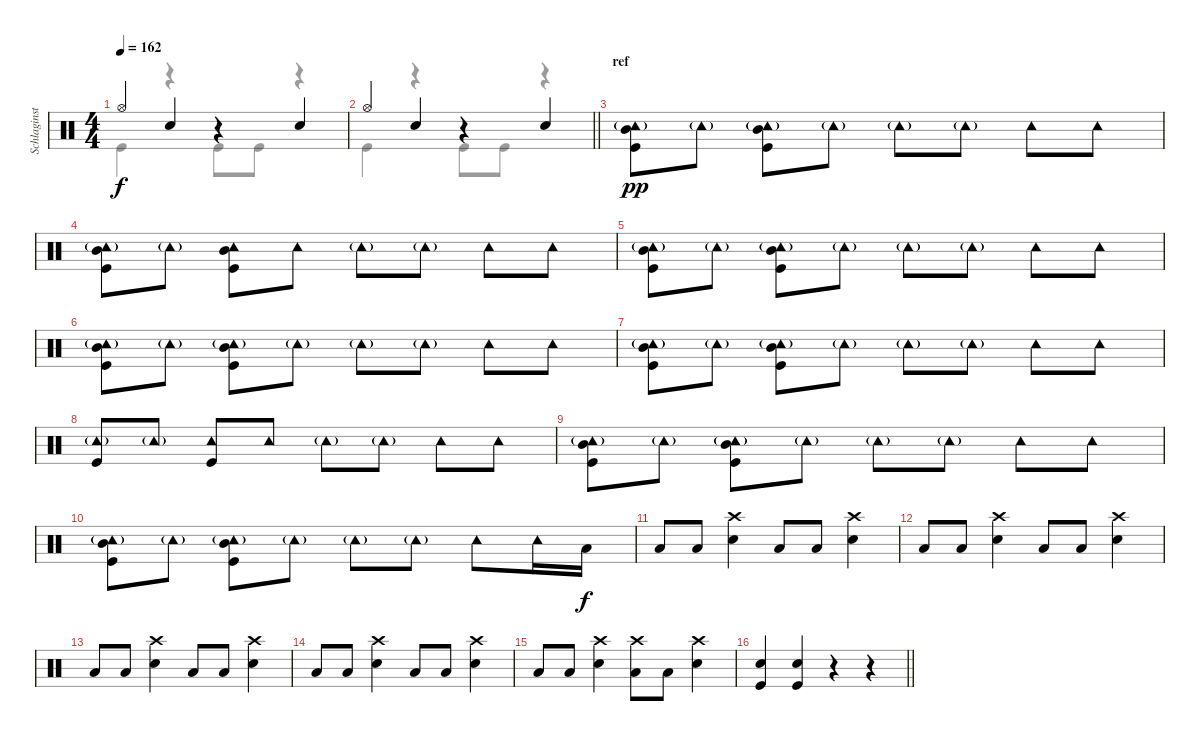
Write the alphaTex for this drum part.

\track ("Schlaginstrumente - Auswahl" "Schlaginst") {instrument percussion}
\staff {score}
\articulation defaults
\voice
\ts (4 4)
\tempo 162
\clef neutral
\ks c "Hi-Hat (open)".4{dy f} "Snare (hit) 2".4
r.4 "Snare (hit) 2".4 |
\barLineRight lightlight "Hi-Hat (open)".4 "Snare (hit) 2".4
r.4 "Snare (hit) 2".4 |
\section ("" "ref")
("Tambourine (hit)"{g} "Kick (hit)" "Mid Tom (hit)").8{dy pp} "Tambourine (hit)"{g}.8 ("Tambourine (hit)"{g} "Kick (hit)" "Mid Tom (hit)").8 "Tambourine (hit)"{g}.8 "Tambourine (hit)"{g}.8 "Tambourine (hit)"{g}.8 "Tambourine (hit)".8 "Tambourine (hit)".8 |
("Tambourine (hit)"{g} "Mid Tom (hit)" "Kick (hit)").8 "Tambourine (hit)"{g}.8 ("Tambourine (hit)" "Mid Tom (hit)" "Kick (hit)").8 "Tambourine (hit)".8 "Tambourine (hit)"{g}.8 "Tambourine (hit)"{g}.8 "Tambourine (hit)".8 "Tambourine (hit)".8 |
("Tambourine (hit)"{g} "Kick (hit)" "Mid Tom (hit)").8 "Tambourine (hit)"{g}.8 ("Tambourine (hit)"{g} "Kick (hit)" "Mid Tom (hit)").8 "Tambourine (hit)"{g}.8 "Tambourine (hit)"{g}.8 "Tambourine (hit)"{g}.8 "Tambourine (hit)".8 "Tambourine (hit)".8 |
("Tambourine (hit)"{g} "Kick (hit)" "Mid Tom (hit)").8 "Tambourine (hit)"{g}.8 ("Tambourine (hit)"{g} "Kick (hit)" "Mid Tom (hit)").8 "Tambourine (hit)"{g}.8 "Tambourine (hit)"{g}.8 "Tambourine (hit)"{g}.8 "Tambourine (hit)".8 "Tambourine (hit)".8 |
("Tambourine (hit)"{g} "Kick (hit)" "Mid Tom (hit)").8 "Tambourine (hit)"{g}.8 ("Tambourine (hit)"{g} "Kick (hit)" "Mid Tom (hit)").8 "Tambourine (hit)"{g}.8 "Tambourine (hit)"{g}.8 "Tambourine (hit)"{g}.8 "Tambourine (hit)".8 "Tambourine (hit)".8 |
("Tambourine (hit)"{g} "Kick (hit)").8 "Tambourine (hit)"{g}.8 ("Tambourine (hit)" "Kick (hit)").8 "Tambourine (hit)".8 "Tambourine (hit)"{g}.8 "Tambourine (hit)"{g}.8 "Tambourine (hit)".8 "Tambourine (hit)".8 |
("Tambourine (hit)"{g} "Kick (hit)" "Mid Tom (hit)").8 "Tambourine (hit)"{g}.8 ("Tambourine (hit)"{g} "Kick (hit)" "Mid Tom (hit)").8 "Tambourine (hit)"{g}.8 "Tambourine (hit)"{g}.8 "Tambourine (hit)"{g}.8 "Tambourine (hit)".8 "Tambourine (hit)".8 |
("Tambourine (hit)"{g} "Kick (hit)" "Mid Tom (hit)").8 "Tambourine (hit)"{g}.8 ("Tambourine (hit)"{g} "Kick (hit)" "Mid Tom (hit)").8 "Tambourine (hit)"{g}.8 "Tambourine (hit)"{g}.8 "Tambourine (hit)"{g}.8 "Tambourine (hit)".8 "Tambourine (hit)".16 "Low Tom (hit)".16{dy f} |
"Low Floor Tom (hit)".8 "Low Floor Tom (hit)".8 ("Snare (hit) 2" "Crash high (hit)").4 "Low Floor Tom (hit)".8 "Low Floor Tom (hit)".8 ("Crash high (hit)" "Snare (hit) 2").4 |
"Low Floor Tom (hit)".8 "Low Floor Tom (hit)".8 ("Snare (hit) 2" "Crash high (hit)").4 "Low Floor Tom (hit)".8 "Low Floor Tom (hit)".8 ("Crash high (hit)" "Snare (hit) 2").4 |
"Low Floor Tom (hit)".8 "Low Floor Tom (hit)".8 ("Snare (hit) 2" "Crash high (hit)").4 "Low Floor Tom (hit)".8 "Low Floor Tom (hit)".8 ("Crash high (hit)" "Snare (hit) 2").4 |
"Low Floor Tom (hit)".8 "Low Floor Tom (hit)".8 ("Snare (hit) 2" "Crash high (hit)").4 "Low Floor Tom (hit)".8 "Low Floor Tom (hit)".8 ("Crash high (hit)" "Snare (hit) 2").4 |
"Low Floor Tom (hit)".8 "Low Floor Tom (hit)".8 ("Snare (hit) 2" "Crash high (hit)").4 ("Low Floor Tom (hit)" "Crash high (hit)").8 "Low Floor Tom (hit)".8 ("Crash high (hit)" "Snare (hit) 2").4 |
\barLineRight lightlight
("Kick (hit)" "Snare (hit) 2").4 ("Kick (hit)" "Snare (hit) 2").4 r.4 r.4
\voice
\clef neutral
\ottava regular
\simile none
\ks c "Kick (hit)".4{dy f}
r.4 "Kick (hit)".8 "Kick (hit)".8 r.4 |
\barLineRight lightlight "Kick (hit)".4
r.4 "Kick (hit)".8 "Kick (hit)".8 r.4 |
|
|
|
|
|
|
|
|
|
|
|
|
|
\barLineRight lightlight
